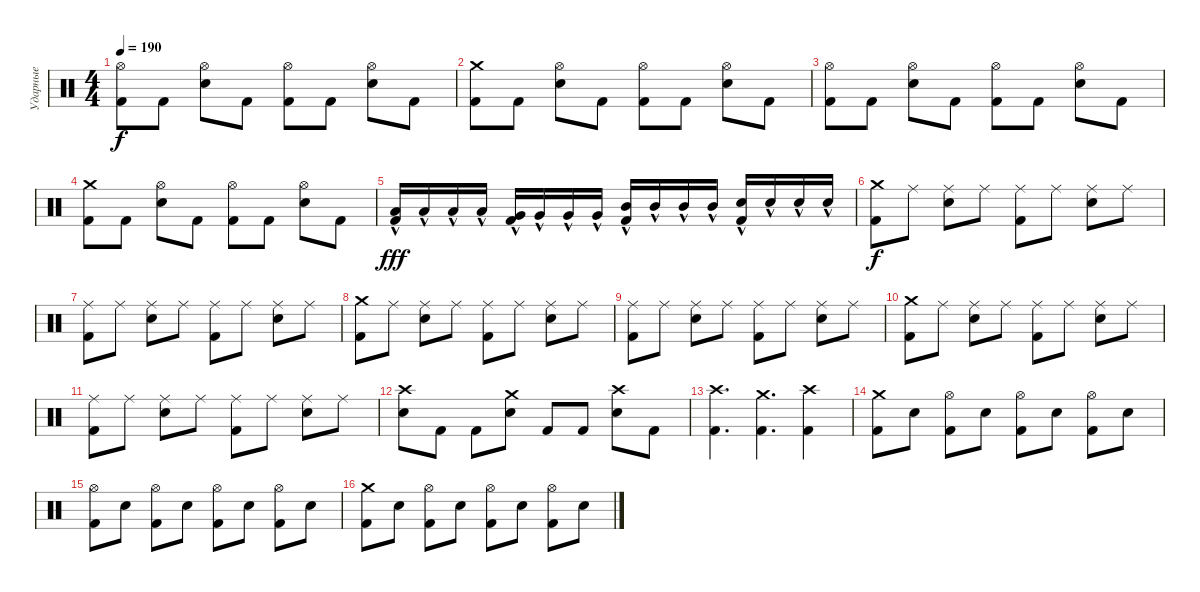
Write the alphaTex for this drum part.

\track ("Ударные" "Ударные") {instrument percussion}
\staff {score}
\articulation defaults
\ts (4 4)
\tempo 190
\clef neutral
\ks c
("Hi-Hat (open)" "Kick (hit) 2").8{dy f} "Kick (hit) 2".8 ("Hi-Hat (open)" "Electric Snare (hit)").8 "Kick (hit) 2".8 ("Hi-Hat (open)" "Kick (hit) 2").8 "Kick (hit) 2".8 ("Hi-Hat (open)" "Electric Snare (hit)").8 "Kick (hit) 2".8 |
("Crash medium (hit)" "Kick (hit) 2").8 "Kick (hit) 2".8 ("Hi-Hat (open)" "Electric Snare (hit)").8 "Kick (hit) 2".8 ("Hi-Hat (open)" "Kick (hit) 2").8 "Kick (hit) 2".8 ("Hi-Hat (open)" "Electric Snare (hit)").8 "Kick (hit) 2".8 |
("Hi-Hat (open)" "Kick (hit) 2").8 "Kick (hit) 2".8 ("Hi-Hat (open)" "Electric Snare (hit)").8 "Kick (hit) 2".8 ("Hi-Hat (open)" "Kick (hit) 2").8 "Kick (hit) 2".8 ("Hi-Hat (open)" "Electric Snare (hit)").8 "Kick (hit) 2".8 |
("Crash medium (hit)" "Kick (hit) 2").8 "Kick (hit) 2".8 ("Hi-Hat (open)" "Electric Snare (hit)").8 "Kick (hit) 2".8 ("Hi-Hat (open)" "Kick (hit) 2").8 "Kick (hit) 2".8 ("Hi-Hat (open)" "Electric Snare (hit)").8 "Kick (hit) 2".8 |
("Low Tom (hit)"{hac} "Kick (hit) 2"{hac}).16{dy fff} "Low Tom (hit)"{hac}.16 "Low Tom (hit)"{hac}.16 "Low Tom (hit)"{hac}.16 ("Very Low Tom (hit)"{hac} "Kick (hit) 2"{hac}).16 "Very Low Tom (hit)"{hac}.16 "Very Low Tom (hit)"{hac}.16 "Very Low Tom (hit)"{hac}.16 ("Mid Tom (hit)"{hac} "Kick (hit) 2"{hac}).16 "Mid Tom (hit)"{hac}.16 "Mid Tom (hit)"{hac}.16 "Mid Tom (hit)"{hac}.16 ("Electric Snare (hit)"{hac} "Kick (hit) 2"{hac}).16 "Electric Snare (hit)"{hac}.16 "Electric Snare (hit)"{hac}.16 "Electric Snare (hit)"{hac}.16 |
("Crash medium (hit)" "Kick (hit) 2").8{dy f} "Ride (middle)".8 ("Ride (middle)" "Electric Snare (hit)").8 "Ride (middle)".8 ("Ride (middle)" "Kick (hit) 2").8 "Ride (middle)".8 ("Ride (middle)" "Electric Snare (hit)").8 "Ride (middle)".8 |
("Ride (middle)" "Kick (hit) 2").8 "Ride (middle)".8 ("Ride (middle)" "Electric Snare (hit)").8 "Ride (middle)".8 ("Ride (middle)" "Kick (hit) 2").8 "Ride (middle)".8 ("Ride (middle)" "Electric Snare (hit)").8 "Ride (middle)".8 |
("Crash medium (hit)" "Kick (hit) 2").8 "Ride (middle)".8 ("Ride (middle)" "Electric Snare (hit)").8 "Ride (middle)".8 ("Ride (middle)" "Kick (hit) 2").8 "Ride (middle)".8 ("Ride (middle)" "Electric Snare (hit)").8 "Ride (middle)".8 |
("Ride (middle)" "Kick (hit) 2").8 "Ride (middle)".8 ("Ride (middle)" "Electric Snare (hit)").8 "Ride (middle)".8 ("Ride (middle)" "Kick (hit) 2").8 "Ride (middle)".8 ("Ride (middle)" "Electric Snare (hit)").8 "Ride (middle)".8 |
("Crash medium (hit)" "Kick (hit) 2").8 "Ride (middle)".8 ("Ride (middle)" "Electric Snare (hit)").8 "Ride (middle)".8 ("Ride (middle)" "Kick (hit) 2").8 "Ride (middle)".8 ("Ride (middle)" "Electric Snare (hit)").8 "Ride (middle)".8 |
("Ride (middle)" "Kick (hit) 2").8 "Ride (middle)".8 ("Ride (middle)" "Electric Snare (hit)").8 "Ride (middle)".8 ("Ride (middle)" "Kick (hit) 2").8 "Ride (middle)".8 ("Ride (middle)" "Electric Snare (hit)").8 "Ride (middle)".8 |
("Crash high (hit)" "Electric Snare (hit)").8 "Kick (hit) 2".8 "Kick (hit) 2".8 ("Crash medium (hit)" "Electric Snare (hit)").8 "Kick (hit) 2".8 "Kick (hit) 2".8 ("Crash high (hit)" "Electric Snare (hit)").8 "Kick (hit) 2".8 |
("Crash high (hit)" "Kick (hit) 2").4{d} ("Crash medium (hit)" "Kick (hit) 2").4{d} ("Crash high (hit)" "Kick (hit) 2").4 |
("Crash medium (hit)" "Kick (hit) 2").8 "Electric Snare (hit)".8 ("Hi-Hat (open)" "Kick (hit) 2").8 "Electric Snare (hit)".8 ("Hi-Hat (open)" "Kick (hit) 2").8 "Electric Snare (hit)".8 ("Hi-Hat (open)" "Kick (hit) 2").8 "Electric Snare (hit)".8 |
("Hi-Hat (open)" "Kick (hit) 2").8 "Electric Snare (hit)".8 ("Hi-Hat (open)" "Kick (hit) 2").8 "Electric Snare (hit)".8 ("Hi-Hat (open)" "Kick (hit) 2").8 "Electric Snare (hit)".8 ("Hi-Hat (open)" "Kick (hit) 2").8 "Electric Snare (hit)".8 |
("Crash medium (hit)" "Kick (hit) 2").8 "Electric Snare (hit)".8 ("Hi-Hat (open)" "Kick (hit) 2").8 "Electric Snare (hit)".8 ("Hi-Hat (open)" "Kick (hit) 2").8 "Electric Snare (hit)".8 ("Hi-Hat (open)" "Kick (hit) 2").8 "Electric Snare (hit)".8
